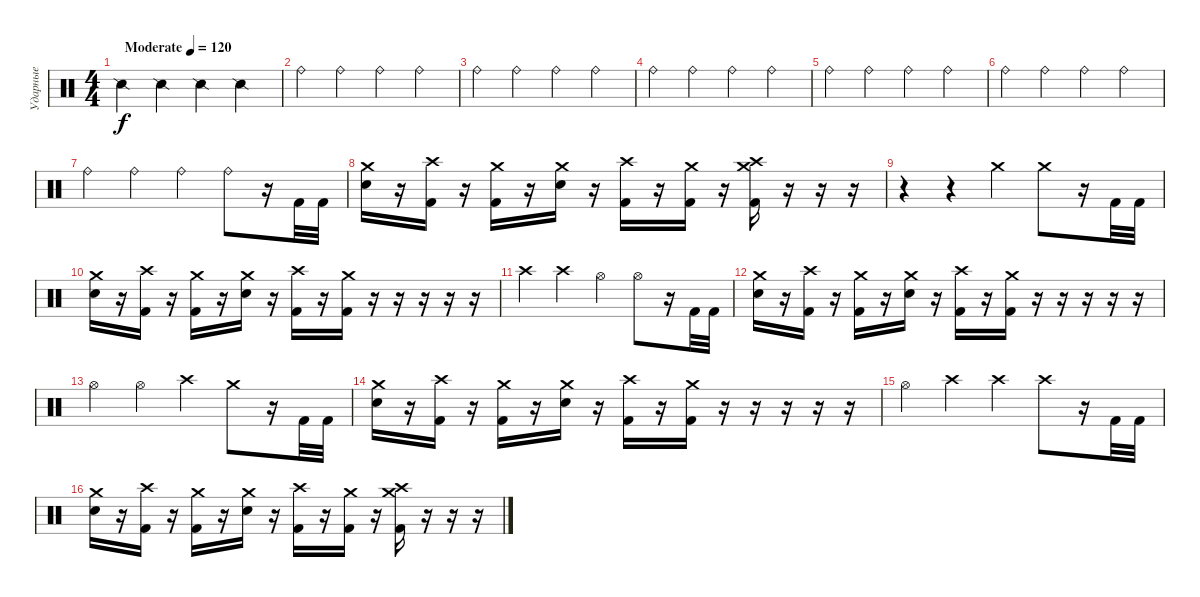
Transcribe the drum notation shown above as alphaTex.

\track ("Ударные" "Ударные") {instrument percussion}
\staff {score}
\articulation defaults
\ts (4 4)
\tempo (120 "Moderate")
\clef neutral
\ks c "Snare (side stick) 2".4{dy f} "Snare (side stick) 2".4 "Snare (side stick) 2".4 "Snare (side stick) 2".4
|
"Ride (bell)".4 "Ride (bell)".4 "Ride (bell)".4 "Ride (bell)".4 |
"Ride (bell)".4 "Ride (bell)".4 "Ride (bell)".4 "Ride (bell)".4 |
"Ride (bell)".4 "Ride (bell)".4 "Ride (bell)".4 "Ride (bell)".4 |
"Ride (bell)".4 "Ride (bell)".4 "Ride (bell)".4 "Ride (bell)".4 |
"Ride (bell)".4 "Ride (bell)".4 "Ride (bell)".4 "Ride (bell)".4 |
"Ride (bell)".4 "Ride (bell)".4 "Ride (bell)".4 "Ride (bell)".8 r.16 "Kick (hit) 2".32 "Kick (hit) 2".32 |
("Electric Snare (hit)" "Crash medium (hit)").16 r.16 ("Kick (hit) 2" "Crash high (hit)").16 r.16 ("Kick (hit) 2" "Crash medium (hit)").16 r.16 ("Electric Snare (hit)" "Crash medium (hit)").16 r.16 ("Kick (hit) 2" "Crash high (hit)").16 r.16 ("Kick (hit) 2" "Crash medium (hit)").16 r.16 ("Kick (hit) 2" "Crash high (hit)" "Crash medium (hit)").16 r.16 r.16 r.16 |
r.4 r.4 "Crash medium (hit)".4 "Crash medium (hit)".8 r.16 "Kick (hit) 2".32 "Kick (hit) 2".32 |
("Electric Snare (hit)" "Crash medium (hit)").16 r.16 ("Kick (hit) 2" "Crash high (hit)").16 r.16 ("Kick (hit) 2" "Crash medium (hit)").16 r.16 ("Electric Snare (hit)" "Crash medium (hit)").16 r.16 ("Kick (hit) 2" "Crash high (hit)").16 r.16 ("Kick (hit) 2" "Crash medium (hit)").16 r.16 r.16 r.16 r.16 r.16 |
"Crash high (hit)".4 "Crash high (hit)".4 "Hi-Hat (open)".4 "Hi-Hat (open)".8 r.16 "Kick (hit) 2".32 "Kick (hit) 2".32 |
("Electric Snare (hit)" "Crash medium (hit)").16 r.16 ("Kick (hit) 2" "Crash high (hit)").16 r.16 ("Kick (hit) 2" "Crash medium (hit)").16 r.16 ("Electric Snare (hit)" "Crash medium (hit)").16 r.16 ("Kick (hit) 2" "Crash high (hit)").16 r.16 ("Kick (hit) 2" "Crash medium (hit)").16 r.16 r.16 r.16 r.16 r.16 |
"Hi-Hat (open)".4 "Hi-Hat (open)".4 "Crash high (hit)".4 "Crash medium (hit)".8 r.16 "Kick (hit) 2".32 "Kick (hit) 2".32 |
("Electric Snare (hit)" "Crash medium (hit)").16 r.16 ("Kick (hit) 2" "Crash high (hit)").16 r.16 ("Kick (hit) 2" "Crash medium (hit)").16 r.16 ("Electric Snare (hit)" "Crash medium (hit)").16 r.16 ("Kick (hit) 2" "Crash high (hit)").16 r.16 ("Kick (hit) 2" "Crash medium (hit)").16 r.16 r.16 r.16 r.16 r.16 |
"Hi-Hat (open)".4 "Crash high (hit)".4 "Crash high (hit)".4 "Crash high (hit)".8 r.16 "Kick (hit) 2".32 "Kick (hit) 2".32 |
("Electric Snare (hit)" "Crash medium (hit)").16 r.16 ("Kick (hit) 2" "Crash high (hit)").16 r.16 ("Kick (hit) 2" "Crash medium (hit)").16 r.16 ("Electric Snare (hit)" "Crash medium (hit)").16 r.16 ("Kick (hit) 2" "Crash high (hit)").16 r.16 ("Kick (hit) 2" "Crash medium (hit)").16 r.16 ("Kick (hit) 2" "Crash high (hit)" "Crash medium (hit)").16 r.16 r.16 r.16
